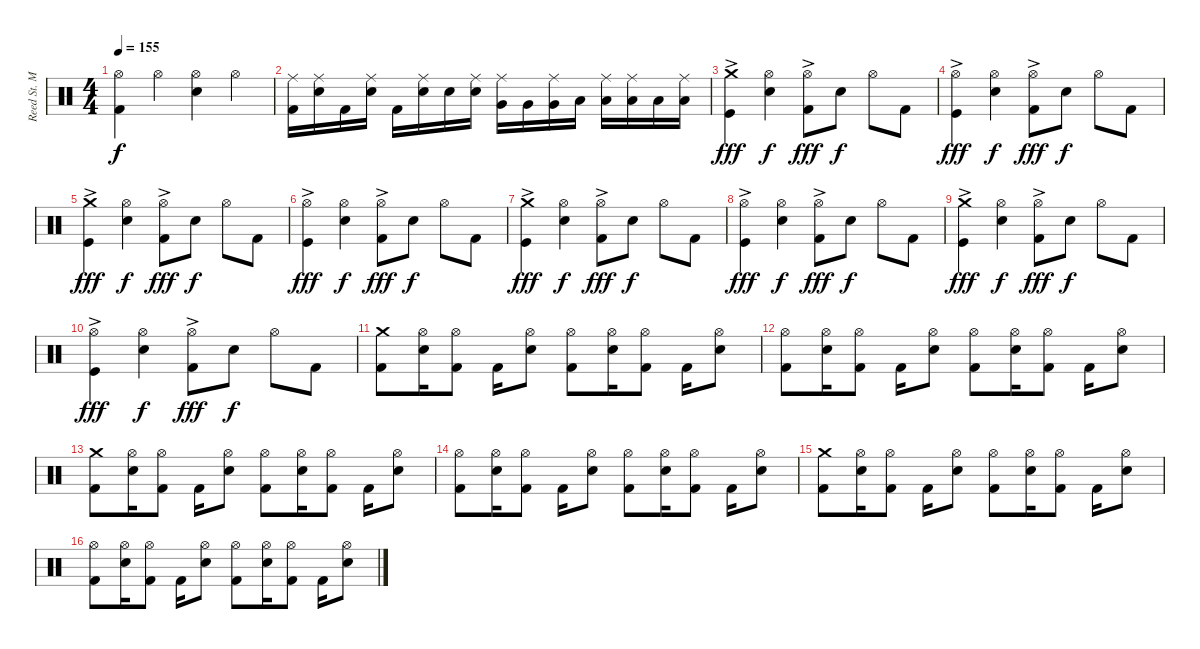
\track ("Reed St. Mark" "Reed St. M") {instrument percussion}
\staff {score}
\articulation defaults
\ts (4 4)
\tempo 155
\clef neutral
\ks c
("Hi-Hat (open)" "Kick (hit) 2").4{dy f} "Hi-Hat (open)".4 ("Hi-Hat (open)" "Snare (hit) 2").4 "Hi-Hat (open)".4 |
("Ride (middle)" "Kick (hit) 2").16 ("Ride (middle)" "Snare (hit) 2").16 "Kick (hit) 2".16 ("Ride (middle)" "Snare (hit) 2").16 "Kick (hit) 2".16 ("Ride (middle)" "Snare (hit) 2").16 "Snare (hit) 2".16 ("Ride (middle)" "Snare (hit) 2").16 ("Ride (middle)" "Very Low Tom (hit)").16 "Very Low Tom (hit)".16 ("Ride (middle)" "Very Low Tom (hit)").16 "Low Tom (hit)".16 ("Ride (middle)" "Low Tom (hit)").16 ("Ride (middle)" "Low Tom (hit)").16 "Low Tom (hit)".16 ("Ride (middle)" "Low Tom (hit)").16 |
("Crash medium (hit)" "Kick (hit)"{ac}).4{dy fff} ("Hi-Hat (open)" "Snare (hit) 2").4{dy f} ("Hi-Hat (open)"{ac} "Kick (hit) 2").8{dy fff} "Snare (hit) 2".8{dy f} "Hi-Hat (open)".8 "Kick (hit) 2".8 |
("Hi-Hat (open)" "Kick (hit)"{ac}).4{dy fff} ("Hi-Hat (open)" "Snare (hit) 2").4{dy f} ("Hi-Hat (open)"{ac} "Kick (hit) 2").8{dy fff} "Snare (hit) 2".8{dy f} "Hi-Hat (open)".8 "Kick (hit) 2".8 |
("Crash medium (hit)" "Kick (hit)"{ac}).4{dy fff} ("Hi-Hat (open)" "Snare (hit) 2").4{dy f} ("Hi-Hat (open)"{ac} "Kick (hit) 2").8{dy fff} "Snare (hit) 2".8{dy f} "Hi-Hat (open)".8 "Kick (hit) 2".8 |
("Hi-Hat (open)" "Kick (hit)"{ac}).4{dy fff} ("Hi-Hat (open)" "Snare (hit) 2").4{dy f} ("Hi-Hat (open)"{ac} "Kick (hit) 2").8{dy fff} "Snare (hit) 2".8{dy f} "Hi-Hat (open)".8 "Kick (hit) 2".8 |
("Crash medium (hit)" "Kick (hit)"{ac}).4{dy fff} ("Hi-Hat (open)" "Snare (hit) 2").4{dy f} ("Hi-Hat (open)"{ac} "Kick (hit) 2").8{dy fff} "Snare (hit) 2".8{dy f} "Hi-Hat (open)".8 "Kick (hit) 2".8 |
("Hi-Hat (open)" "Kick (hit)"{ac}).4{dy fff} ("Hi-Hat (open)" "Snare (hit) 2").4{dy f} ("Hi-Hat (open)"{ac} "Kick (hit) 2").8{dy fff} "Snare (hit) 2".8{dy f} "Hi-Hat (open)".8 "Kick (hit) 2".8 |
("Crash medium (hit)" "Kick (hit)"{ac}).4{dy fff} ("Hi-Hat (open)" "Snare (hit) 2").4{dy f} ("Hi-Hat (open)"{ac} "Kick (hit) 2").8{dy fff} "Snare (hit) 2".8{dy f} "Hi-Hat (open)".8 "Kick (hit) 2".8 |
("Hi-Hat (open)" "Kick (hit)"{ac}).4{dy fff} ("Hi-Hat (open)" "Snare (hit) 2").4{dy f} ("Hi-Hat (open)"{ac} "Kick (hit) 2").8{dy fff} "Snare (hit) 2".8{dy f} "Hi-Hat (open)".8 "Kick (hit) 2".8 |
("Crash medium (hit)" "Kick (hit) 2").8 ("Hi-Hat (open)" "Snare (hit) 2").16 ("Hi-Hat (open)" "Kick (hit) 2").8 "Kick (hit) 2".16 ("Hi-Hat (open)" "Snare (hit) 2").8 ("Hi-Hat (open)" "Kick (hit) 2").8 ("Hi-Hat (open)" "Snare (hit) 2").16 ("Hi-Hat (open)" "Kick (hit) 2").8 "Kick (hit) 2".16 ("Hi-Hat (open)" "Snare (hit) 2").8 |
("Hi-Hat (open)" "Kick (hit) 2").8 ("Hi-Hat (open)" "Snare (hit) 2").16 ("Hi-Hat (open)" "Kick (hit) 2").8 "Kick (hit) 2".16 ("Hi-Hat (open)" "Snare (hit) 2").8 ("Hi-Hat (open)" "Kick (hit) 2").8 ("Hi-Hat (open)" "Snare (hit) 2").16 ("Hi-Hat (open)" "Kick (hit) 2").8 "Kick (hit) 2".16 ("Hi-Hat (open)" "Snare (hit) 2").8 |
("Crash medium (hit)" "Kick (hit) 2").8 ("Hi-Hat (open)" "Snare (hit) 2").16 ("Hi-Hat (open)" "Kick (hit) 2").8 "Kick (hit) 2".16 ("Hi-Hat (open)" "Snare (hit) 2").8 ("Hi-Hat (open)" "Kick (hit) 2").8 ("Hi-Hat (open)" "Snare (hit) 2").16 ("Hi-Hat (open)" "Kick (hit) 2").8 "Kick (hit) 2".16 ("Hi-Hat (open)" "Snare (hit) 2").8 |
("Hi-Hat (open)" "Kick (hit) 2").8 ("Hi-Hat (open)" "Snare (hit) 2").16 ("Hi-Hat (open)" "Kick (hit) 2").8 "Kick (hit) 2".16 ("Hi-Hat (open)" "Snare (hit) 2").8 ("Hi-Hat (open)" "Kick (hit) 2").8 ("Hi-Hat (open)" "Snare (hit) 2").16 ("Hi-Hat (open)" "Kick (hit) 2").8 "Kick (hit) 2".16 ("Hi-Hat (open)" "Snare (hit) 2").8 |
("Crash medium (hit)" "Kick (hit) 2").8 ("Hi-Hat (open)" "Snare (hit) 2").16 ("Hi-Hat (open)" "Kick (hit) 2").8 "Kick (hit) 2".16 ("Hi-Hat (open)" "Snare (hit) 2").8 ("Hi-Hat (open)" "Kick (hit) 2").8 ("Hi-Hat (open)" "Snare (hit) 2").16 ("Hi-Hat (open)" "Kick (hit) 2").8 "Kick (hit) 2".16 ("Hi-Hat (open)" "Snare (hit) 2").8 |
("Hi-Hat (open)" "Kick (hit) 2").8 ("Hi-Hat (open)" "Snare (hit) 2").16 ("Hi-Hat (open)" "Kick (hit) 2").8 "Kick (hit) 2".16 ("Hi-Hat (open)" "Snare (hit) 2").8 ("Hi-Hat (open)" "Kick (hit) 2").8 ("Hi-Hat (open)" "Snare (hit) 2").16 ("Hi-Hat (open)" "Kick (hit) 2").8 "Kick (hit) 2".16 ("Hi-Hat (open)" "Snare (hit) 2").8
